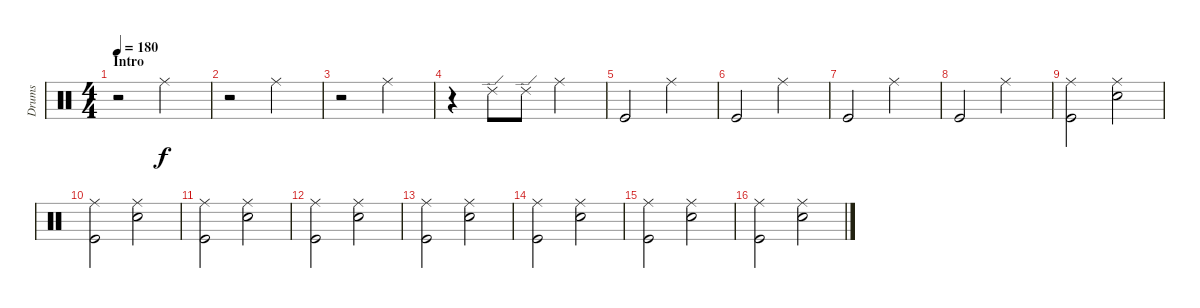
\track ("Drums" "Drums") {instrument percussion}
\staff {score}
\articulation defaults
\ts (4 4)
\section ("" "Intro")
\tempo 180
\clef neutral
\ks c
r.2{dy f} "Ride (middle)".2 |
r.2 "Ride (middle)".2 |
r.2 "Ride (middle)".2 |
r.4 "Ride (edge) 2".8 "Ride (edge) 2".8 "Ride (middle)".2 |
"Kick (hit)".2 "Ride (middle)".2 |
"Kick (hit)".2 "Ride (middle)".2 |
"Kick (hit)".2 "Ride (middle)".2 |
"Kick (hit)".2 "Ride (middle)".2 |
("Ride (middle)" "Kick (hit)").2 ("Ride (middle)" "Snare (hit) 2").2 |
("Ride (middle)" "Kick (hit)").2 ("Ride (middle)" "Snare (hit) 2").2 |
("Ride (middle)" "Kick (hit)").2 ("Ride (middle)" "Snare (hit) 2").2 |
("Ride (middle)" "Kick (hit)").2 ("Ride (middle)" "Snare (hit) 2").2 |
("Ride (middle)" "Kick (hit)").2 ("Ride (middle)" "Snare (hit) 2").2 |
("Ride (middle)" "Kick (hit)").2 ("Ride (middle)" "Snare (hit) 2").2 |
("Ride (middle)" "Kick (hit)").2 ("Ride (middle)" "Snare (hit) 2").2 |
("Ride (middle)" "Kick (hit)").2 ("Ride (middle)" "Snare (hit) 2").2
